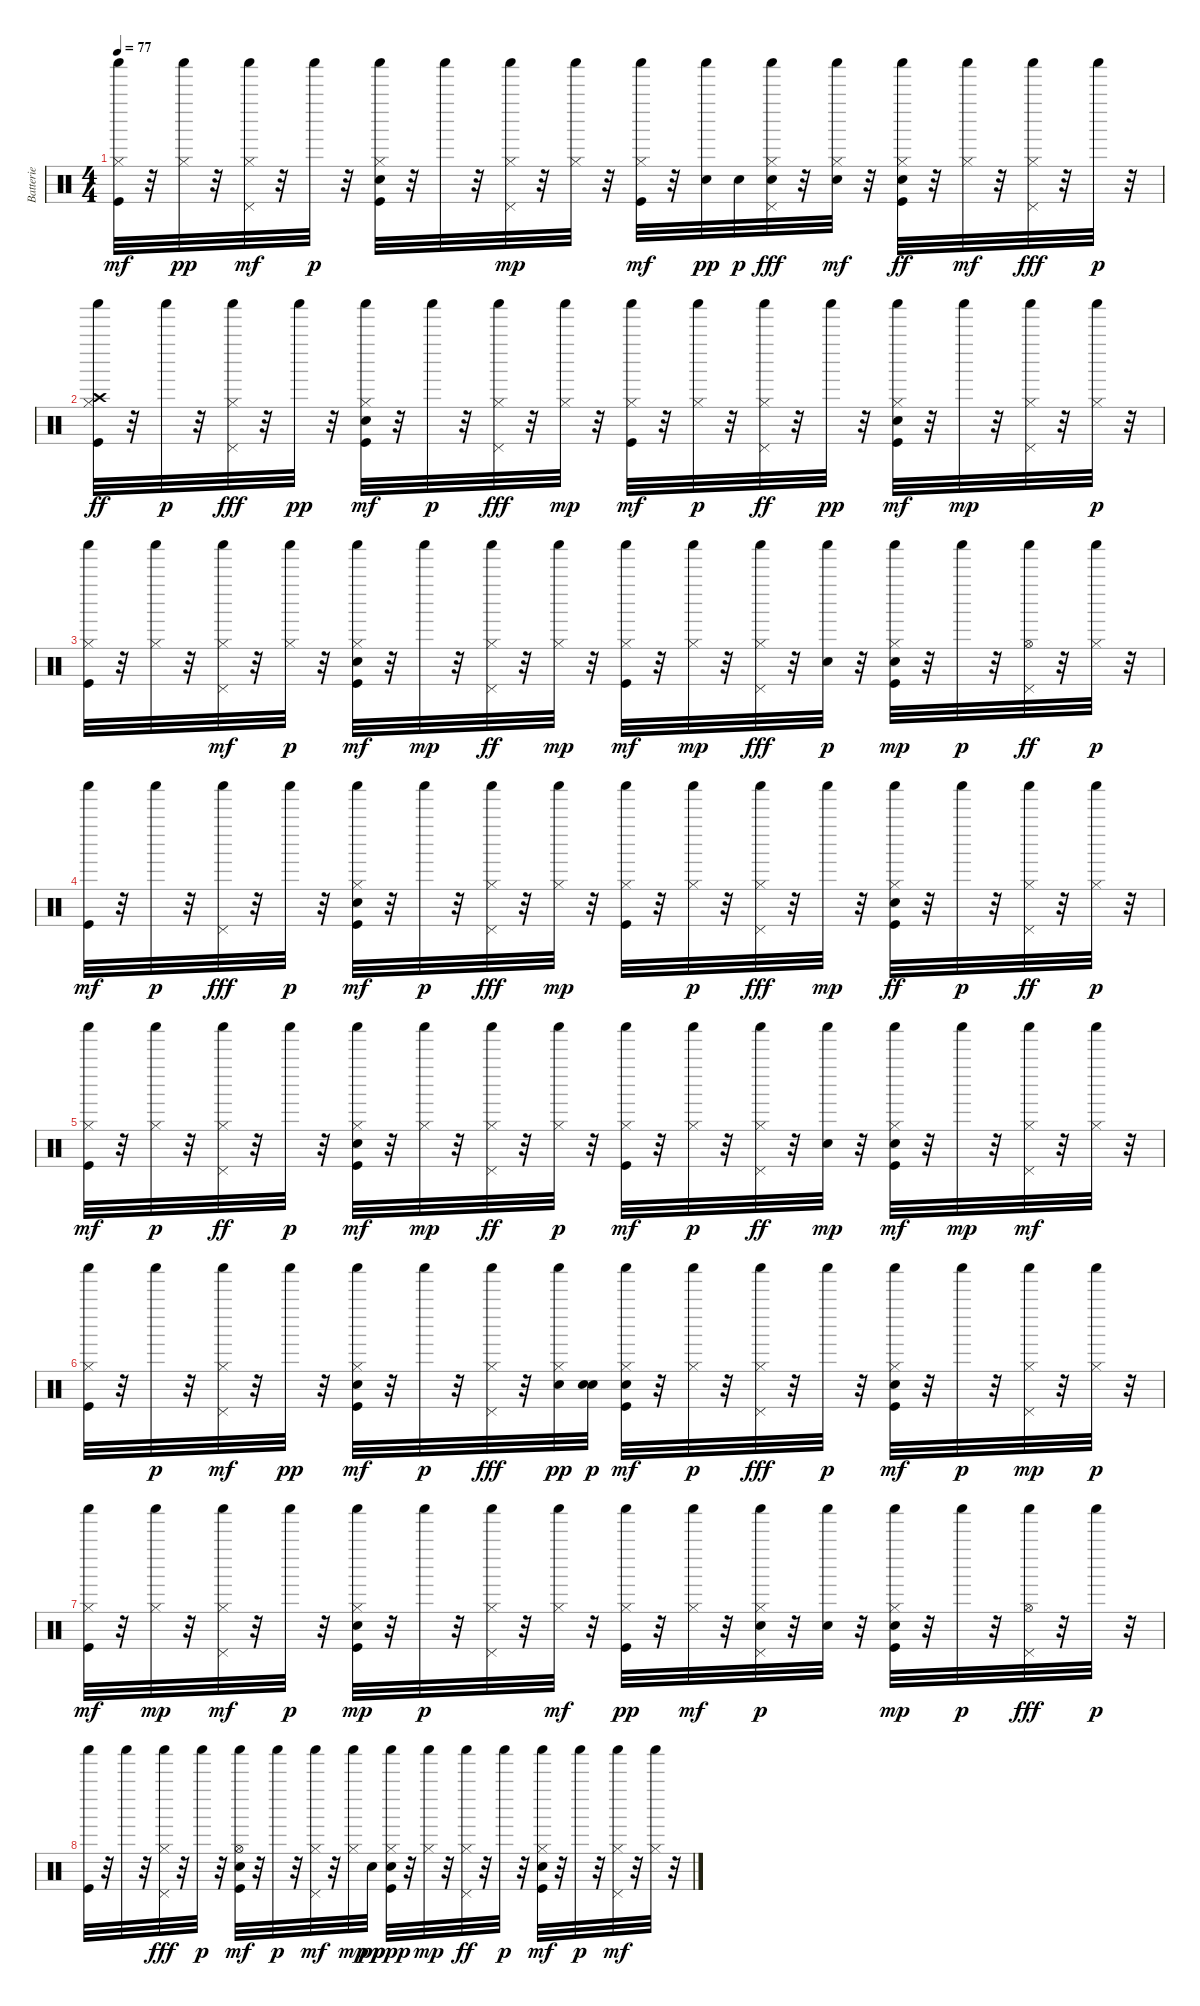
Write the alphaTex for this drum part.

\track ("Batterie" "Batterie") {instrument percussion}
\staff {score}
\articulation defaults
\ts (4 4)
\tempo 77
\clef neutral
\ks c
("Kick (hit)" "Shaker (hit)" "Hi-Hat (closed)").32{dy mf} r.32 ("Hi-Hat (closed)" "Shaker (hit)").32{dy pp} r.32 ("Pedal Hi-Hat (hit)" "Shaker (hit)" "Hi-Hat (closed)").32{dy mf} r.32 "Shaker (hit)".32{dy p} r.32 ("Hi-Hat (closed)" "Shaker (hit)" "Kick (hit)" "Electric Snare (hit)").32 r.32 "Shaker (hit)".32 r.32 ("Pedal Hi-Hat (hit)" "Shaker (hit)" "Hi-Hat (closed)").32{dy mp} r.32 ("Shaker (hit)" "Hi-Hat (closed)").32 r.32 ("Shaker (hit)" "Kick (hit)" "Hi-Hat (closed)").32{dy mf} r.32 ("Shaker (hit)" "Electric Snare (hit)").32{dy pp} "Electric Snare (hit)".32{dy p} ("Electric Snare (hit)" "Hi-Hat (closed)" "Pedal Hi-Hat (hit)" "Shaker (hit)").32{dy fff} r.32 ("Electric Snare (hit)" "Shaker (hit)" "Hi-Hat (closed)").32{dy mf} r.32 ("Electric Snare (hit)" "Shaker (hit)" "Kick (hit)" "Hi-Hat (closed)").32{dy ff} r.32 ("Shaker (hit)" "Hi-Hat (closed)").32{dy mf} r.32 ("Hi-Hat (closed)" "Shaker (hit)" "Pedal Hi-Hat (hit)").32{dy fff} r.32 "Shaker (hit)".32{dy p} r.32 |
("Hi-Hat (closed)" "Shaker (hit)" "Kick (hit)" "Crash high (hit)").32{dy ff} r.32 "Shaker (hit)".32{dy p} r.32 ("Pedal Hi-Hat (hit)" "Shaker (hit)" "Hi-Hat (closed)").32{dy fff} r.32 "Shaker (hit)".32{dy pp} r.32 ("Hi-Hat (closed)" "Shaker (hit)" "Kick (hit)" "Electric Snare (hit)").32{dy mf} r.32 "Shaker (hit)".32{dy p} r.32 ("Hi-Hat (closed)" "Pedal Hi-Hat (hit)" "Shaker (hit)").32{dy fff} r.32 ("Shaker (hit)" "Hi-Hat (closed)").32{dy mp} r.32 ("Shaker (hit)" "Kick (hit)" "Hi-Hat (closed)").32{dy mf} r.32 ("Hi-Hat (closed)" "Shaker (hit)").32{dy p} r.32 ("Pedal Hi-Hat (hit)" "Shaker (hit)" "Hi-Hat (closed)").32{dy ff} r.32 "Shaker (hit)".32{dy pp} r.32 ("Hi-Hat (closed)" "Kick (hit)" "Shaker (hit)" "Electric Snare (hit)").32{dy mf} r.32 "Shaker (hit)".32{dy mp} r.32 ("Pedal Hi-Hat (hit)" "Shaker (hit)" "Hi-Hat (closed)").32 r.32 ("Hi-Hat (closed)" "Shaker (hit)").32{dy p} r.32 |
("Hi-Hat (closed)" "Kick (hit)" "Shaker (hit)").32 r.32 ("Hi-Hat (closed)" "Shaker (hit)").32 r.32 ("Pedal Hi-Hat (hit)" "Shaker (hit)" "Hi-Hat (closed)").32{dy mf} r.32 ("Hi-Hat (closed)" "Shaker (hit)").32{dy p} r.32 ("Shaker (hit)" "Hi-Hat (closed)" "Kick (hit)" "Electric Snare (hit)").32{dy mf} r.32 "Shaker (hit)".32{dy mp} r.32 ("Pedal Hi-Hat (hit)" "Shaker (hit)" "Hi-Hat (closed)").32{dy ff} r.32 ("Shaker (hit)" "Hi-Hat (closed)").32{dy mp} r.32 ("Shaker (hit)" "Kick (hit)" "Hi-Hat (closed)").32{dy mf} r.32 ("Shaker (hit)" "Hi-Hat (closed)").32{dy mp} r.32 ("Shaker (hit)" "Pedal Hi-Hat (hit)" "Hi-Hat (closed)").32{dy fff} r.32 ("Electric Snare (hit)" "Shaker (hit)").32{dy p} r.32 ("Electric Snare (hit)" "Shaker (hit)" "Hi-Hat (closed)" "Kick (hit)").32{dy mp} r.32 "Shaker (hit)".32{dy p} r.32 ("Pedal Hi-Hat (hit)" "Hi-Hat (open)" "Shaker (hit)").32{dy ff} r.32 ("Hi-Hat (closed)" "Shaker (hit)").32{dy p} r.32 |
("Shaker (hit)" "Kick (hit)").32{dy mf} r.32 "Shaker (hit)".32{dy p} r.32 ("Pedal Hi-Hat (hit)" "Shaker (hit)").32{dy fff} r.32 "Shaker (hit)".32{dy p} r.32 ("Hi-Hat (closed)" "Shaker (hit)" "Kick (hit)" "Electric Snare (hit)").32{dy mf} r.32 "Shaker (hit)".32{dy p} r.32 ("Hi-Hat (closed)" "Pedal Hi-Hat (hit)" "Shaker (hit)").32{dy fff} r.32 ("Shaker (hit)" "Hi-Hat (closed)").32{dy mp} r.32 ("Hi-Hat (closed)" "Shaker (hit)" "Kick (hit)").32 r.32 ("Hi-Hat (closed)" "Shaker (hit)").32{dy p} r.32 ("Shaker (hit)" "Hi-Hat (closed)" "Pedal Hi-Hat (hit)").32{dy fff} r.32 "Shaker (hit)".32{dy mp} r.32 ("Electric Snare (hit)" "Shaker (hit)" "Kick (hit)" "Hi-Hat (closed)").32{dy ff} r.32 "Shaker (hit)".32{dy p} r.32 ("Hi-Hat (closed)" "Pedal Hi-Hat (hit)" "Shaker (hit)").32{dy ff} r.32 ("Hi-Hat (closed)" "Shaker (hit)").32{dy p} r.32 |
("Shaker (hit)" "Kick (hit)" "Hi-Hat (closed)").32{dy mf} r.32 ("Hi-Hat (closed)" "Shaker (hit)").32{dy p} r.32 ("Shaker (hit)" "Pedal Hi-Hat (hit)" "Hi-Hat (closed)").32{dy ff} r.32 "Shaker (hit)".32{dy p} r.32 ("Shaker (hit)" "Hi-Hat (closed)" "Kick (hit)" "Electric Snare (hit)").32{dy mf} r.32 ("Hi-Hat (closed)" "Shaker (hit)").32{dy mp} r.32 ("Hi-Hat (closed)" "Pedal Hi-Hat (hit)" "Shaker (hit)").32{dy ff} r.32 ("Hi-Hat (closed)" "Shaker (hit)").32{dy p} r.32 ("Hi-Hat (closed)" "Shaker (hit)" "Kick (hit)").32{dy mf} r.32 ("Hi-Hat (closed)" "Shaker (hit)").32{dy p} r.32 ("Hi-Hat (closed)" "Pedal Hi-Hat (hit)" "Shaker (hit)").32{dy ff} r.32 ("Shaker (hit)" "Electric Snare (hit)").32{dy mp} r.32 ("Hi-Hat (closed)" "Kick (hit)" "Shaker (hit)" "Electric Snare (hit)").32{dy mf} r.32 "Shaker (hit)".32{dy mp} r.32 ("Pedal Hi-Hat (hit)" "Shaker (hit)" "Hi-Hat (closed)").32{dy mf} r.32 ("Shaker (hit)" "Hi-Hat (closed)").32 r.32 |
("Shaker (hit)" "Kick (hit)" "Hi-Hat (closed)").32 r.32 "Shaker (hit)".32{dy p} r.32 ("Shaker (hit)" "Pedal Hi-Hat (hit)" "Hi-Hat (closed)").32{dy mf} r.32 "Shaker (hit)".32{dy pp} r.32 ("Shaker (hit)" "Kick (hit)" "Hi-Hat (closed)" "Electric Snare (hit)").32{dy mf} r.32 "Shaker (hit)".32{dy p} r.32 ("Hi-Hat (closed)" "Shaker (hit)" "Pedal Hi-Hat (hit)").32{dy fff} r.32 ("Hi-Hat (closed)" "Shaker (hit)" "Electric Snare (hit)").32{dy pp} ("Electric Snare (hit)" "Electric Snare (hit)").32{dy p} ("Hi-Hat (closed)" "Shaker (hit)" "Kick (hit)" "Electric Snare (hit)").32{dy mf} r.32 ("Hi-Hat (closed)" "Shaker (hit)").32{dy p} r.32 ("Shaker (hit)" "Hi-Hat (closed)" "Pedal Hi-Hat (hit)").32{dy fff} r.32 "Shaker (hit)".32{dy p} r.32 ("Hi-Hat (closed)" "Shaker (hit)" "Kick (hit)" "Electric Snare (hit)").32{dy mf} r.32 "Shaker (hit)".32{dy p} r.32 ("Pedal Hi-Hat (hit)" "Shaker (hit)" "Hi-Hat (closed)").32{dy mp} r.32 ("Shaker (hit)" "Hi-Hat (closed)").32{dy p} r.32 |
("Shaker (hit)" "Kick (hit)" "Hi-Hat (closed)").32{dy mf} r.32 ("Shaker (hit)" "Hi-Hat (closed)").32{dy mp} r.32 ("Pedal Hi-Hat (hit)" "Shaker (hit)" "Hi-Hat (closed)").32{dy mf} r.32 "Shaker (hit)".32{dy p} r.32 ("Electric Snare (hit)" "Shaker (hit)" "Hi-Hat (closed)" "Kick (hit)").32{dy mp} r.32 "Shaker (hit)".32{dy p} r.32 ("Shaker (hit)" "Pedal Hi-Hat (hit)" "Hi-Hat (closed)").32 r.32 ("Shaker (hit)" "Hi-Hat (closed)").32{dy mf} r.32 ("Kick (hit)" "Hi-Hat (closed)" "Shaker (hit)").32{dy pp} r.32 ("Shaker (hit)" "Hi-Hat (closed)").32{dy mf} r.32 ("Pedal Hi-Hat (hit)" "Shaker (hit)" "Hi-Hat (closed)" "Electric Snare (hit)").32{dy p} r.32 ("Shaker (hit)" "Electric Snare (hit)").32 r.32 ("Kick (hit)" "Shaker (hit)" "Electric Snare (hit)" "Hi-Hat (closed)").32{dy mp} r.32 "Shaker (hit)".32{dy p} r.32 ("Hi-Hat (open)" "Pedal Hi-Hat (hit)" "Shaker (hit)").32{dy fff} r.32 "Shaker (hit)".32{dy p} r.32 |
("Kick (hit)" "Shaker (hit)").32 r.32 "Shaker (hit)".32 r.32 ("Hi-Hat (closed)" "Shaker (hit)" "Pedal Hi-Hat (hit)").32{dy fff} r.32 "Shaker (hit)".32{dy p} r.32 ("Hi-Hat (open)" "Shaker (hit)" "Kick (hit)" "Electric Snare (hit)").32{dy mf} r.32 "Shaker (hit)".32{dy p} r.32 ("Shaker (hit)" "Pedal Hi-Hat (hit)" "Hi-Hat (closed)").32{dy mf} r.32 ("Shaker (hit)" "Hi-Hat (closed)").32{dy mp} "Electric Snare (hit)".32{dy pp} ("Shaker (hit)" "Kick (hit)" "Hi-Hat (closed)" "Electric Snare (hit)").32{dy ppp} r.32 ("Shaker (hit)" "Hi-Hat (closed)").32{dy mp} r.32 ("Pedal Hi-Hat (hit)" "Shaker (hit)" "Hi-Hat (closed)").32{dy ff} r.32 "Shaker (hit)".32{dy p} r.32 ("Shaker (hit)" "Kick (hit)" "Hi-Hat (closed)" "Electric Snare (hit)").32{dy mf} r.32 "Shaker (hit)".32{dy p} r.32 ("Pedal Hi-Hat (hit)" "Shaker (hit)" "Hi-Hat (closed)").32{dy mf} r.32 ("Shaker (hit)" "Hi-Hat (closed)").32 r.32
